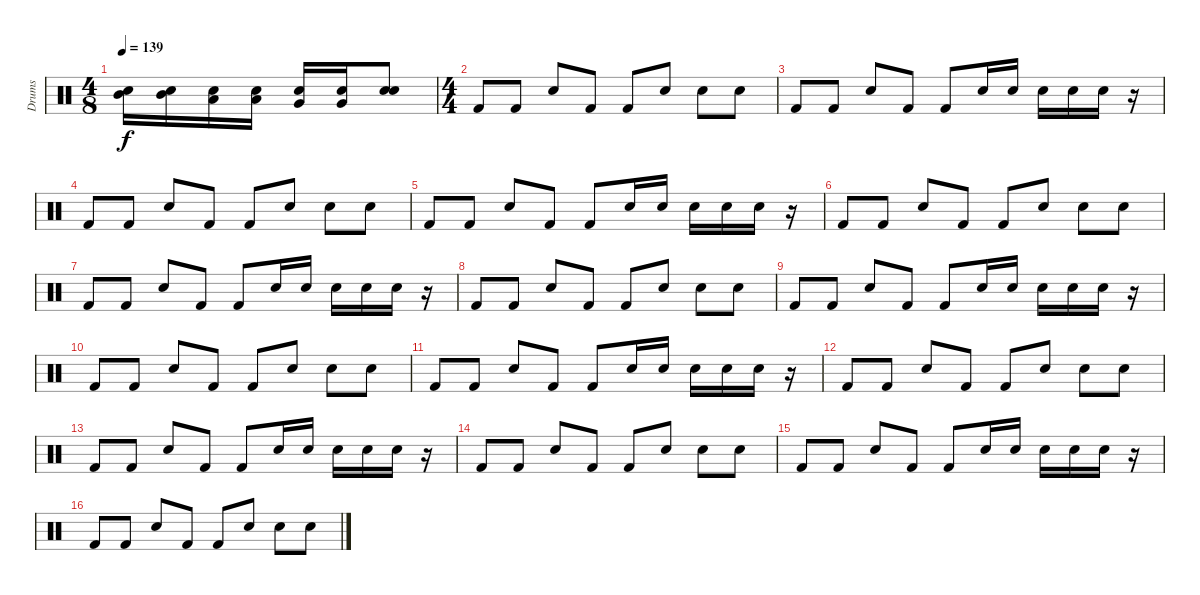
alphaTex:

\track ("Drums" "Drums") {instrument percussion}
\staff {score}
\articulation defaults
\ts (4 8)
\tempo 139
\clef neutral
\ks c
("Mid Tom (hit)" "Snare (hit) 2").16{dy f} ("Mid Tom (hit)" "Snare (hit) 2").16 ("Low Tom (hit)" "Snare (hit) 2").16 ("Low Tom (hit)" "Snare (hit) 2").16 ("Very Low Tom (hit)" "Snare (hit) 2").16 ("Very Low Tom (hit)" "Snare (hit) 2").16 ("Snare (hit) 2" "Snare (hit) 2").8 |
\ts (4 4)
"Kick (hit) 2".8 "Kick (hit) 2".8 "Snare (hit) 2".8 "Kick (hit) 2".8 "Kick (hit) 2".8 "Snare (hit) 2".8 "Snare (hit) 2".8 "Snare (hit) 2".8 |
"Kick (hit) 2".8 "Kick (hit) 2".8 "Snare (hit) 2".8 "Kick (hit) 2".8 "Kick (hit) 2".8 "Snare (hit) 2".16 "Snare (hit) 2".16 "Snare (hit) 2".16 "Snare (hit) 2".16 "Snare (hit) 2".16 r.16 |
"Kick (hit) 2".8 "Kick (hit) 2".8 "Snare (hit) 2".8 "Kick (hit) 2".8 "Kick (hit) 2".8 "Snare (hit) 2".8 "Snare (hit) 2".8 "Snare (hit) 2".8 |
"Kick (hit) 2".8 "Kick (hit) 2".8 "Snare (hit) 2".8 "Kick (hit) 2".8 "Kick (hit) 2".8 "Snare (hit) 2".16 "Snare (hit) 2".16 "Snare (hit) 2".16 "Snare (hit) 2".16 "Snare (hit) 2".16 r.16 |
"Kick (hit) 2".8 "Kick (hit) 2".8 "Snare (hit) 2".8 "Kick (hit) 2".8 "Kick (hit) 2".8 "Snare (hit) 2".8 "Snare (hit) 2".8 "Snare (hit) 2".8 |
"Kick (hit) 2".8 "Kick (hit) 2".8 "Snare (hit) 2".8 "Kick (hit) 2".8 "Kick (hit) 2".8 "Snare (hit) 2".16 "Snare (hit) 2".16 "Snare (hit) 2".16 "Snare (hit) 2".16 "Snare (hit) 2".16 r.16 |
"Kick (hit) 2".8 "Kick (hit) 2".8 "Snare (hit) 2".8 "Kick (hit) 2".8 "Kick (hit) 2".8 "Snare (hit) 2".8 "Snare (hit) 2".8 "Snare (hit) 2".8 |
"Kick (hit) 2".8 "Kick (hit) 2".8 "Snare (hit) 2".8 "Kick (hit) 2".8 "Kick (hit) 2".8 "Snare (hit) 2".16 "Snare (hit) 2".16 "Snare (hit) 2".16 "Snare (hit) 2".16 "Snare (hit) 2".16 r.16 |
"Kick (hit) 2".8 "Kick (hit) 2".8 "Snare (hit) 2".8 "Kick (hit) 2".8 "Kick (hit) 2".8 "Snare (hit) 2".8 "Snare (hit) 2".8 "Snare (hit) 2".8 |
"Kick (hit) 2".8 "Kick (hit) 2".8 "Snare (hit) 2".8 "Kick (hit) 2".8 "Kick (hit) 2".8 "Snare (hit) 2".16 "Snare (hit) 2".16 "Snare (hit) 2".16 "Snare (hit) 2".16 "Snare (hit) 2".16 r.16 |
"Kick (hit) 2".8 "Kick (hit) 2".8 "Snare (hit) 2".8 "Kick (hit) 2".8 "Kick (hit) 2".8 "Snare (hit) 2".8 "Snare (hit) 2".8 "Snare (hit) 2".8 |
"Kick (hit) 2".8 "Kick (hit) 2".8 "Snare (hit) 2".8 "Kick (hit) 2".8 "Kick (hit) 2".8 "Snare (hit) 2".16 "Snare (hit) 2".16 "Snare (hit) 2".16 "Snare (hit) 2".16 "Snare (hit) 2".16 r.16 |
"Kick (hit) 2".8 "Kick (hit) 2".8 "Snare (hit) 2".8 "Kick (hit) 2".8 "Kick (hit) 2".8 "Snare (hit) 2".8 "Snare (hit) 2".8 "Snare (hit) 2".8 |
"Kick (hit) 2".8 "Kick (hit) 2".8 "Snare (hit) 2".8 "Kick (hit) 2".8 "Kick (hit) 2".8 "Snare (hit) 2".16 "Snare (hit) 2".16 "Snare (hit) 2".16 "Snare (hit) 2".16 "Snare (hit) 2".16 r.16 |
"Kick (hit) 2".8 "Kick (hit) 2".8 "Snare (hit) 2".8 "Kick (hit) 2".8 "Kick (hit) 2".8 "Snare (hit) 2".8 "Snare (hit) 2".8 "Snare (hit) 2".8
